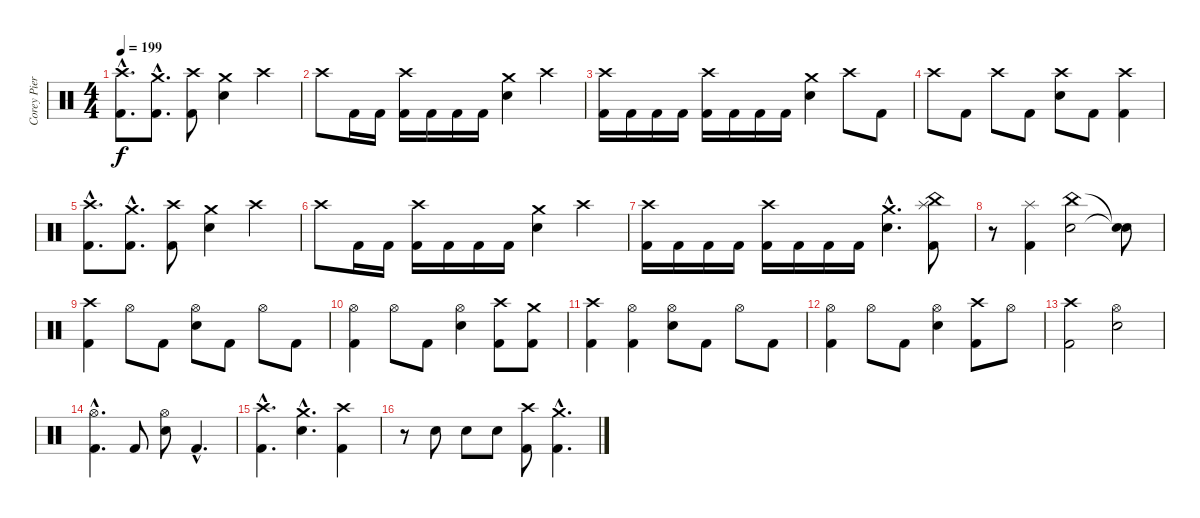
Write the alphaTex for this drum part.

\track ("Corey Pierce (Drums)" "Corey Pier") {instrument percussion}
\staff {score}
\articulation defaults
\ts (4 4)
\tempo 199
\clef neutral
\ks c
("Crash high (hit)"{hac} "Kick (hit) 2"{hac}).8{d dy f} ("Crash medium (hit)"{hac} "Kick (hit) 2"{hac}).8{d} ("Crash high (hit)" "Kick (hit) 2").8 ("Crash medium (hit)" "Snare (hit) 2").4 "Crash high (hit)".4 |
"Crash high (hit)".8 "Kick (hit) 2".16 "Kick (hit) 2".16 ("Crash high (hit)" "Kick (hit) 2").16 "Kick (hit) 2".16 "Kick (hit) 2".16 "Kick (hit) 2".16 ("Crash medium (hit)" "Snare (hit) 2").4 "Crash high (hit)".4 |
("Crash high (hit)" "Kick (hit) 2").16 "Kick (hit) 2".16 "Kick (hit) 2".16 "Kick (hit) 2".16 ("Crash high (hit)" "Kick (hit) 2").16 "Kick (hit) 2".16 "Kick (hit) 2".16 "Kick (hit) 2".16 ("Crash medium (hit)" "Snare (hit) 2").4 "Crash high (hit)".8 "Kick (hit) 2".8 |
"Crash high (hit)".8 "Kick (hit) 2".8 "Crash high (hit)".8 "Kick (hit) 2".8 ("Crash high (hit)" "Snare (hit) 2").8 "Kick (hit) 2".8 ("Crash high (hit)" "Kick (hit) 2").4 |
("Crash high (hit)"{hac} "Kick (hit) 2"{hac}).8{d} ("Crash medium (hit)"{hac} "Kick (hit) 2"{hac}).8{d} ("Crash high (hit)" "Kick (hit) 2").8 ("Crash medium (hit)" "Snare (hit) 2").4 "Crash high (hit)".4 |
"Crash high (hit)".8 "Kick (hit) 2".16 "Kick (hit) 2".16 ("Crash high (hit)" "Kick (hit) 2").16 "Kick (hit) 2".16 "Kick (hit) 2".16 "Kick (hit) 2".16 ("Crash medium (hit)" "Snare (hit) 2").4 "Crash high (hit)".4 |
("Crash high (hit)" "Kick (hit) 2").16 "Kick (hit) 2".16 "Kick (hit) 2".16 "Kick (hit) 2".16 ("Crash high (hit)" "Kick (hit) 2").16 "Kick (hit) 2".16 "Kick (hit) 2".16 "Kick (hit) 2".16 ("Crash medium (hit)"{hac} "Snare (hit) 2"{hac}).4{d} ("Splash (hit)" "China (hit)" "Kick (hit) 2").8 |
r.8 ("Splash (hit)" "Kick (hit) 2").4 ("China (hit)" "Snare (hit) 2").2 ("Snare (hit)"{t} "Snare (hit)"{t}).8 |
("Crash high (hit)" "Kick (hit) 2").4 "Hi-Hat (open)".8 "Kick (hit) 2".8 ("Hi-Hat (open)" "Snare (hit) 2").8 "Kick (hit) 2".8 "Hi-Hat (open)".8 "Kick (hit) 2".8 |
("Hi-Hat (open)" "Kick (hit) 2").4 "Hi-Hat (open)".8 "Kick (hit) 2".8 ("Hi-Hat (open)" "Snare (hit) 2").4 ("Crash high (hit)" "Kick (hit) 2").8 ("Crash medium (hit)" "Kick (hit) 2").8 |
("Crash high (hit)" "Kick (hit) 2").4 ("Hi-Hat (open)" "Kick (hit) 2").4 ("Hi-Hat (open)" "Snare (hit) 2").8 "Kick (hit) 2".8 "Hi-Hat (open)".8 "Kick (hit) 2".8 |
("Hi-Hat (open)" "Kick (hit) 2").4 "Hi-Hat (open)".8 "Kick (hit) 2".8 ("Hi-Hat (open)" "Snare (hit) 2").4 ("Crash high (hit)" "Kick (hit) 2").8 "Hi-Hat (open)".8 |
("Crash high (hit)" "Kick (hit) 2").2 ("Hi-Hat (open)" "Snare (hit) 2").2 |
("Hi-Hat (open)"{hac} "Kick (hit) 2"{hac}).4{d} "Kick (hit) 2".8 ("Hi-Hat (open)" "Snare (hit) 2").8 "Kick (hit) 2"{hac}.4{d} |
("Crash high (hit)"{hac} "Kick (hit) 2"{hac}).4{d} ("Crash medium (hit)"{hac} "Snare (hit) 2"{hac}).4{d} ("Crash high (hit)" "Kick (hit) 2").4 |
r.8 "Snare (hit) 2".8 "Snare (hit) 2".8 "Snare (hit) 2".8 ("Crash high (hit)" "Kick (hit) 2").8 ("Crash medium (hit)"{hac} "Kick (hit) 2"{hac}).4{d}
